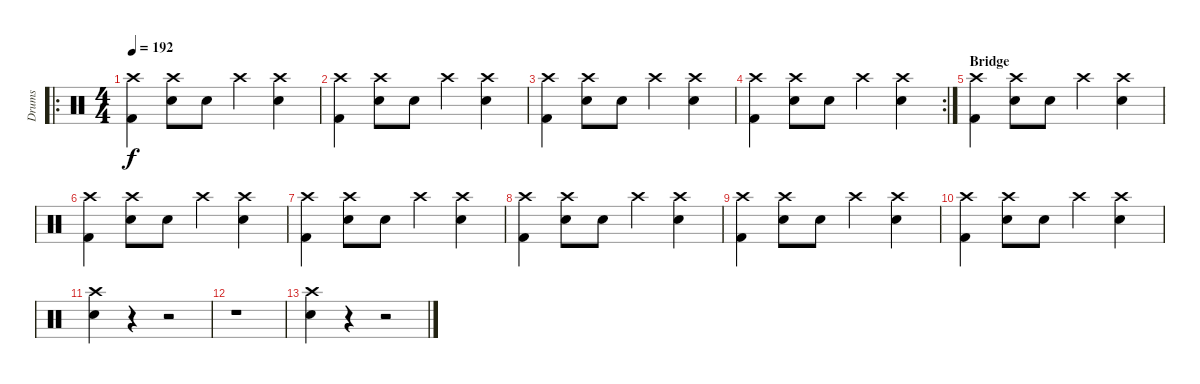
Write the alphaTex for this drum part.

\track ("Drums" "Drums") {instrument percussion}
\staff {score}
\articulation defaults
\ro
\ts (4 4)
\tempo 192
\clef neutral
\ks c
("Crash high (hit)" "Kick (hit) 2").4{dy f} ("Crash high (hit)" "Electric Snare (hit)").8 "Electric Snare (hit)".8 "Crash high (hit)".4 ("Crash high (hit)" "Electric Snare (hit)").4 |
("Crash high (hit)" "Kick (hit) 2").4 ("Crash high (hit)" "Electric Snare (hit)").8 "Electric Snare (hit)".8 "Crash high (hit)".4 ("Crash high (hit)" "Electric Snare (hit)").4 |
("Crash high (hit)" "Kick (hit) 2").4 ("Crash high (hit)" "Electric Snare (hit)").8 "Electric Snare (hit)".8 "Crash high (hit)".4 ("Crash high (hit)" "Electric Snare (hit)").4 |
\rc 2
("Crash high (hit)" "Kick (hit) 2").4 ("Crash high (hit)" "Electric Snare (hit)").8 "Electric Snare (hit)".8 "Crash high (hit)".4 ("Crash high (hit)" "Electric Snare (hit)").4 |
\section ("" "Bridge")
("Crash high (hit)" "Kick (hit) 2").4 ("Crash high (hit)" "Electric Snare (hit)").8 "Electric Snare (hit)".8 "Crash high (hit)".4 ("Crash high (hit)" "Electric Snare (hit)").4 |
("Crash high (hit)" "Kick (hit) 2").4 ("Crash high (hit)" "Electric Snare (hit)").8 "Electric Snare (hit)".8 "Crash high (hit)".4 ("Crash high (hit)" "Electric Snare (hit)").4 |
("Crash high (hit)" "Kick (hit) 2").4 ("Crash high (hit)" "Electric Snare (hit)").8 "Electric Snare (hit)".8 "Crash high (hit)".4 ("Crash high (hit)" "Electric Snare (hit)").4 |
("Crash high (hit)" "Kick (hit) 2").4 ("Crash high (hit)" "Electric Snare (hit)").8 "Electric Snare (hit)".8 "Crash high (hit)".4 ("Crash high (hit)" "Electric Snare (hit)").4 |
("Crash high (hit)" "Kick (hit) 2").4 ("Crash high (hit)" "Electric Snare (hit)").8 "Electric Snare (hit)".8 "Crash high (hit)".4 ("Crash high (hit)" "Electric Snare (hit)").4 |
("Crash high (hit)" "Kick (hit) 2").4 ("Crash high (hit)" "Electric Snare (hit)").8 "Electric Snare (hit)".8 "Crash high (hit)".4 ("Crash high (hit)" "Electric Snare (hit)").4 |
("Crash high (hit)" "Electric Snare (hit)").4 r.4 r.2 |
r.1 |
("Crash high (hit)" "Electric Snare (hit)").4 r.4 r.2
